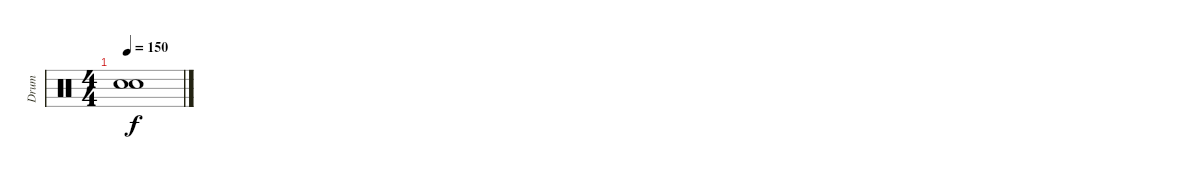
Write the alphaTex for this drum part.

\track ("Drum" "Drum") {instrument percussion}
\staff {score}
\articulation defaults
\ts (4 4)
\tempo 150
\clef neutral
\ks c
("Snare (hit)"{t} "Snare (hit)"{t}).1{dy f}
